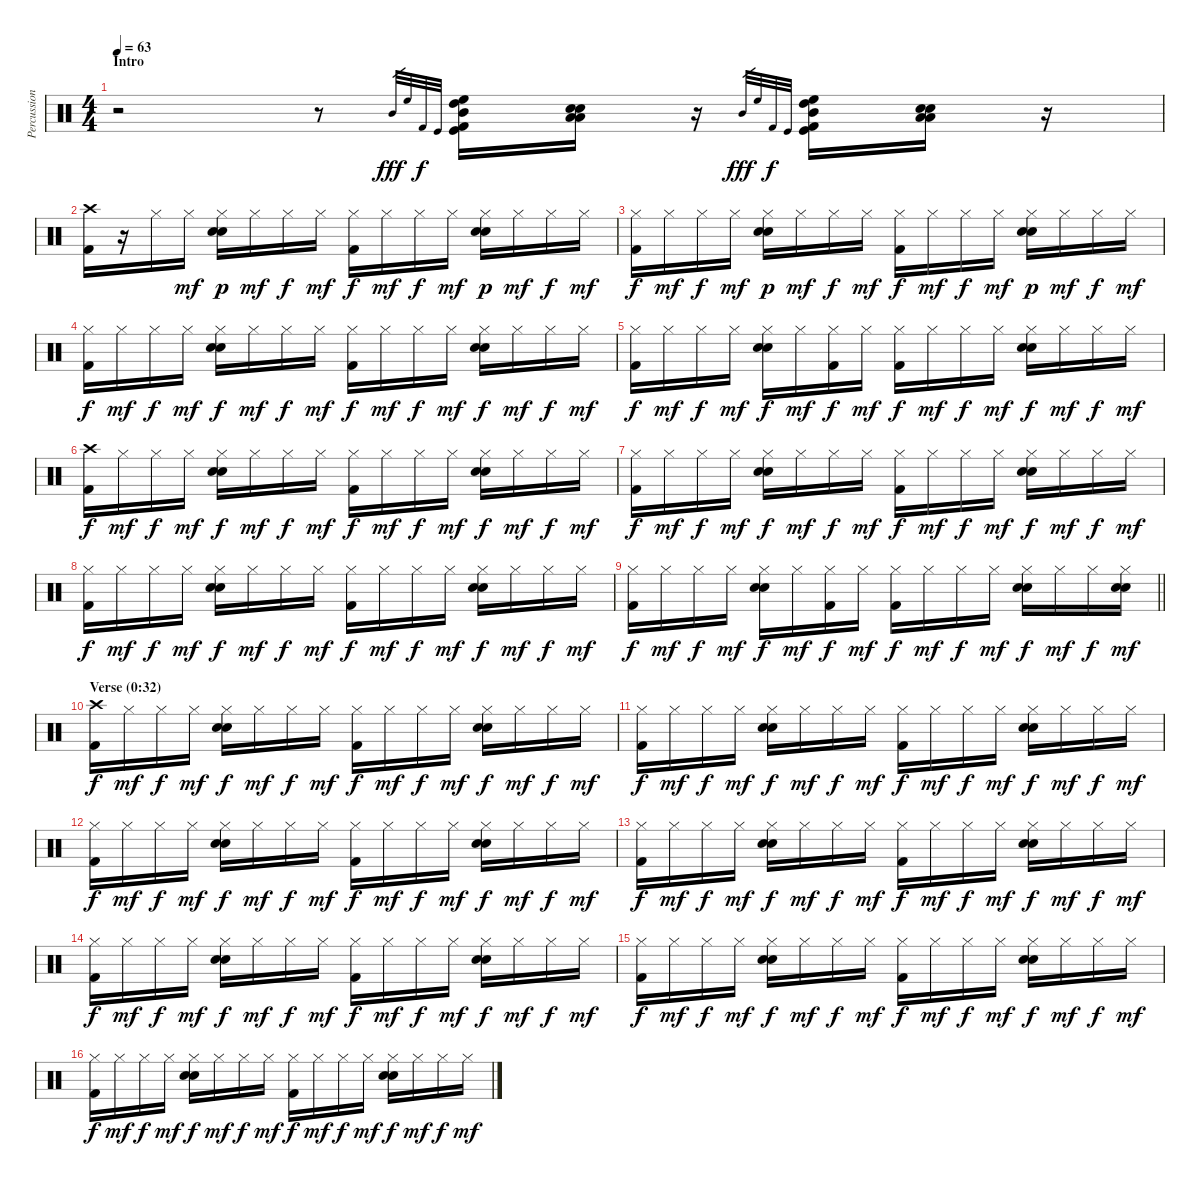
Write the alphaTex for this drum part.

\track ("Percussion" "Percussion") {instrument percussion}
\staff {score}
\articulation defaults
\ts (4 4)
\section ("" "Intro")
\tempo 63
\clef neutral
\ks c
r.2{dy fff} r.8 "Mid Tom (hit)".32{gr} "High Floor Tom (hit)".32{gr} "Kick (hit) 2".32{gr dy f} "Kick (hit)".32{gr} ("Mid Tom (hit)" "High Floor Tom (hit)" "High Tom (hit)" "Kick (hit) 2" "Kick (hit)").16 ("Low Floor Tom (hit)" "Low Tom (hit)" "Electric Snare (hit)" "Snare (hit) 2").16 r.16 "Mid Tom (hit)".32{gr dy fff} "High Floor Tom (hit)".32{gr} "Kick (hit) 2".32{gr dy f} "Kick (hit)".32{gr} ("Mid Tom (hit)" "High Floor Tom (hit)" "High Tom (hit)" "Kick (hit) 2" "Kick (hit)").16 ("Low Floor Tom (hit)" "Low Tom (hit)" "Electric Snare (hit)" "Snare (hit) 2").16 r.16 |
("Crash high (hit)" "Kick (hit) 2").16 r.16 "Hi-Hat (closed)".16 "Hi-Hat (closed)".16{dy mf} ("Hi-Hat (closed)" "Snare (hit) 2" "Electric Snare (hit)").16{dy p} "Hi-Hat (closed)".16{dy mf} "Hi-Hat (closed)".16{dy f} "Hi-Hat (closed)".16{dy mf} ("Hi-Hat (closed)" "Kick (hit) 2").16{dy f} "Hi-Hat (closed)".16{dy mf} "Hi-Hat (closed)".16{dy f} "Hi-Hat (closed)".16{dy mf} ("Hi-Hat (closed)" "Snare (hit) 2" "Electric Snare (hit)").16{dy p} "Hi-Hat (closed)".16{dy mf} "Hi-Hat (closed)".16{dy f} "Hi-Hat (closed)".16{dy mf} |
("Hi-Hat (closed)" "Kick (hit) 2").16{dy f} "Hi-Hat (closed)".16{dy mf} "Hi-Hat (closed)".16{dy f} "Hi-Hat (closed)".16{dy mf} ("Hi-Hat (closed)" "Snare (hit) 2" "Electric Snare (hit)").16{dy p} "Hi-Hat (closed)".16{dy mf} "Hi-Hat (closed)".16{dy f} "Hi-Hat (closed)".16{dy mf} ("Hi-Hat (closed)" "Kick (hit) 2").16{dy f} "Hi-Hat (closed)".16{dy mf} "Hi-Hat (closed)".16{dy f} "Hi-Hat (closed)".16{dy mf} ("Hi-Hat (closed)" "Snare (hit) 2" "Electric Snare (hit)").16{dy p} "Hi-Hat (closed)".16{dy mf} "Hi-Hat (closed)".16{dy f} "Hi-Hat (closed)".16{dy mf} |
("Hi-Hat (closed)" "Kick (hit) 2").16{dy f} "Hi-Hat (closed)".16{dy mf} "Hi-Hat (closed)".16{dy f} "Hi-Hat (closed)".16{dy mf} ("Hi-Hat (closed)" "Snare (hit) 2" "Electric Snare (hit)").16{dy f} "Hi-Hat (closed)".16{dy mf} "Hi-Hat (closed)".16{dy f} "Hi-Hat (closed)".16{dy mf} ("Hi-Hat (closed)" "Kick (hit) 2").16{dy f} "Hi-Hat (closed)".16{dy mf} "Hi-Hat (closed)".16{dy f} "Hi-Hat (closed)".16{dy mf} ("Hi-Hat (closed)" "Snare (hit) 2" "Electric Snare (hit)").16{dy f} "Hi-Hat (closed)".16{dy mf} "Hi-Hat (closed)".16{dy f} "Hi-Hat (closed)".16{dy mf} |
("Hi-Hat (closed)" "Kick (hit) 2").16{dy f} "Hi-Hat (closed)".16{dy mf} "Hi-Hat (closed)".16{dy f} "Hi-Hat (closed)".16{dy mf} ("Hi-Hat (closed)" "Snare (hit) 2" "Electric Snare (hit)").16{dy f} "Hi-Hat (closed)".16{dy mf} ("Hi-Hat (closed)" "Kick (hit) 2").16{dy f} "Hi-Hat (closed)".16{dy mf} ("Hi-Hat (closed)" "Kick (hit) 2").16{dy f} "Hi-Hat (closed)".16{dy mf} "Hi-Hat (closed)".16{dy f} "Hi-Hat (closed)".16{dy mf} ("Hi-Hat (closed)" "Snare (hit) 2" "Electric Snare (hit)").16{dy f} "Hi-Hat (closed)".16{dy mf} "Hi-Hat (closed)".16{dy f} "Hi-Hat (closed)".16{dy mf} |
("Crash high (hit)" "Kick (hit) 2").16{dy f} "Hi-Hat (closed)".16{dy mf} "Hi-Hat (closed)".16{dy f} "Hi-Hat (closed)".16{dy mf} ("Hi-Hat (closed)" "Snare (hit) 2" "Electric Snare (hit)").16{dy f} "Hi-Hat (closed)".16{dy mf} "Hi-Hat (closed)".16{dy f} "Hi-Hat (closed)".16{dy mf} ("Hi-Hat (closed)" "Kick (hit) 2").16{dy f} "Hi-Hat (closed)".16{dy mf} "Hi-Hat (closed)".16{dy f} "Hi-Hat (closed)".16{dy mf} ("Hi-Hat (closed)" "Snare (hit) 2" "Electric Snare (hit)").16{dy f} "Hi-Hat (closed)".16{dy mf} "Hi-Hat (closed)".16{dy f} "Hi-Hat (closed)".16{dy mf} |
("Hi-Hat (closed)" "Kick (hit) 2").16{dy f} "Hi-Hat (closed)".16{dy mf} "Hi-Hat (closed)".16{dy f} "Hi-Hat (closed)".16{dy mf} ("Hi-Hat (closed)" "Snare (hit) 2" "Electric Snare (hit)").16{dy f} "Hi-Hat (closed)".16{dy mf} "Hi-Hat (closed)".16{dy f} "Hi-Hat (closed)".16{dy mf} ("Hi-Hat (closed)" "Kick (hit) 2").16{dy f} "Hi-Hat (closed)".16{dy mf} "Hi-Hat (closed)".16{dy f} "Hi-Hat (closed)".16{dy mf} ("Hi-Hat (closed)" "Snare (hit) 2" "Electric Snare (hit)").16{dy f} "Hi-Hat (closed)".16{dy mf} "Hi-Hat (closed)".16{dy f} "Hi-Hat (closed)".16{dy mf} |
("Hi-Hat (closed)" "Kick (hit) 2").16{dy f} "Hi-Hat (closed)".16{dy mf} "Hi-Hat (closed)".16{dy f} "Hi-Hat (closed)".16{dy mf} ("Hi-Hat (closed)" "Snare (hit) 2" "Electric Snare (hit)").16{dy f} "Hi-Hat (closed)".16{dy mf} "Hi-Hat (closed)".16{dy f} "Hi-Hat (closed)".16{dy mf} ("Hi-Hat (closed)" "Kick (hit) 2").16{dy f} "Hi-Hat (closed)".16{dy mf} "Hi-Hat (closed)".16{dy f} "Hi-Hat (closed)".16{dy mf} ("Hi-Hat (closed)" "Snare (hit) 2" "Electric Snare (hit)").16{dy f} "Hi-Hat (closed)".16{dy mf} "Hi-Hat (closed)".16{dy f} "Hi-Hat (closed)".16{dy mf} |
\barLineRight lightlight
("Hi-Hat (closed)" "Kick (hit) 2").16{dy f} "Hi-Hat (closed)".16{dy mf} "Hi-Hat (closed)".16{dy f} "Hi-Hat (closed)".16{dy mf} ("Hi-Hat (closed)" "Snare (hit) 2" "Electric Snare (hit)").16{dy f} "Hi-Hat (closed)".16{dy mf} ("Hi-Hat (closed)" "Kick (hit) 2").16{dy f} "Hi-Hat (closed)".16{dy mf} ("Hi-Hat (closed)" "Kick (hit) 2").16{dy f} "Hi-Hat (closed)".16{dy mf} "Hi-Hat (closed)".16{dy f} "Hi-Hat (closed)".16{dy mf} ("Hi-Hat (closed)" "Snare (hit) 2" "Electric Snare (hit)").16{dy f} "Hi-Hat (closed)".16{dy mf} "Hi-Hat (closed)".16{dy f} ("Hi-Hat (closed)" "Snare (hit) 2" "Electric Snare (hit)").16{dy mf} |
\section ("" "Verse (0:32)")
("Crash high (hit)" "Kick (hit) 2").16{dy f} "Hi-Hat (closed)".16{dy mf} "Hi-Hat (closed)".16{dy f} "Hi-Hat (closed)".16{dy mf} ("Hi-Hat (closed)" "Snare (hit) 2" "Electric Snare (hit)").16{dy f} "Hi-Hat (closed)".16{dy mf} "Hi-Hat (closed)".16{dy f} "Hi-Hat (closed)".16{dy mf} ("Hi-Hat (closed)" "Kick (hit) 2").16{dy f} "Hi-Hat (closed)".16{dy mf} "Hi-Hat (closed)".16{dy f} "Hi-Hat (closed)".16{dy mf} ("Hi-Hat (closed)" "Snare (hit) 2" "Electric Snare (hit)").16{dy f} "Hi-Hat (closed)".16{dy mf} "Hi-Hat (closed)".16{dy f} "Hi-Hat (closed)".16{dy mf} |
("Hi-Hat (closed)" "Kick (hit) 2").16{dy f} "Hi-Hat (closed)".16{dy mf} "Hi-Hat (closed)".16{dy f} "Hi-Hat (closed)".16{dy mf} ("Hi-Hat (closed)" "Snare (hit) 2" "Electric Snare (hit)").16{dy f} "Hi-Hat (closed)".16{dy mf} "Hi-Hat (closed)".16{dy f} "Hi-Hat (closed)".16{dy mf} ("Hi-Hat (closed)" "Kick (hit) 2").16{dy f} "Hi-Hat (closed)".16{dy mf} "Hi-Hat (closed)".16{dy f} "Hi-Hat (closed)".16{dy mf} ("Hi-Hat (closed)" "Snare (hit) 2" "Electric Snare (hit)").16{dy f} "Hi-Hat (closed)".16{dy mf} "Hi-Hat (closed)".16{dy f} "Hi-Hat (closed)".16{dy mf} |
("Hi-Hat (closed)" "Kick (hit) 2").16{dy f} "Hi-Hat (closed)".16{dy mf} "Hi-Hat (closed)".16{dy f} "Hi-Hat (closed)".16{dy mf} ("Hi-Hat (closed)" "Snare (hit) 2" "Electric Snare (hit)").16{dy f} "Hi-Hat (closed)".16{dy mf} "Hi-Hat (closed)".16{dy f} "Hi-Hat (closed)".16{dy mf} ("Hi-Hat (closed)" "Kick (hit) 2").16{dy f} "Hi-Hat (closed)".16{dy mf} "Hi-Hat (closed)".16{dy f} "Hi-Hat (closed)".16{dy mf} ("Hi-Hat (closed)" "Snare (hit) 2" "Electric Snare (hit)").16{dy f} "Hi-Hat (closed)".16{dy mf} "Hi-Hat (closed)".16{dy f} "Hi-Hat (closed)".16{dy mf} |
("Hi-Hat (closed)" "Kick (hit) 2").16{dy f} "Hi-Hat (closed)".16{dy mf} "Hi-Hat (closed)".16{dy f} "Hi-Hat (closed)".16{dy mf} ("Hi-Hat (closed)" "Snare (hit) 2" "Electric Snare (hit)").16{dy f} "Hi-Hat (closed)".16{dy mf} "Hi-Hat (closed)".16{dy f} "Hi-Hat (closed)".16{dy mf} ("Hi-Hat (closed)" "Kick (hit) 2").16{dy f} "Hi-Hat (closed)".16{dy mf} "Hi-Hat (closed)".16{dy f} "Hi-Hat (closed)".16{dy mf} ("Hi-Hat (closed)" "Snare (hit) 2" "Electric Snare (hit)").16{dy f} "Hi-Hat (closed)".16{dy mf} "Hi-Hat (closed)".16{dy f} "Hi-Hat (closed)".16{dy mf} |
("Hi-Hat (closed)" "Kick (hit) 2").16{dy f} "Hi-Hat (closed)".16{dy mf} "Hi-Hat (closed)".16{dy f} "Hi-Hat (closed)".16{dy mf} ("Hi-Hat (closed)" "Snare (hit) 2" "Electric Snare (hit)").16{dy f} "Hi-Hat (closed)".16{dy mf} "Hi-Hat (closed)".16{dy f} "Hi-Hat (closed)".16{dy mf} ("Hi-Hat (closed)" "Kick (hit) 2").16{dy f} "Hi-Hat (closed)".16{dy mf} "Hi-Hat (closed)".16{dy f} "Hi-Hat (closed)".16{dy mf} ("Hi-Hat (closed)" "Snare (hit) 2" "Electric Snare (hit)").16{dy f} "Hi-Hat (closed)".16{dy mf} "Hi-Hat (closed)".16{dy f} "Hi-Hat (closed)".16{dy mf} |
("Hi-Hat (closed)" "Kick (hit) 2").16{dy f} "Hi-Hat (closed)".16{dy mf} "Hi-Hat (closed)".16{dy f} "Hi-Hat (closed)".16{dy mf} ("Hi-Hat (closed)" "Snare (hit) 2" "Electric Snare (hit)").16{dy f} "Hi-Hat (closed)".16{dy mf} "Hi-Hat (closed)".16{dy f} "Hi-Hat (closed)".16{dy mf} ("Hi-Hat (closed)" "Kick (hit) 2").16{dy f} "Hi-Hat (closed)".16{dy mf} "Hi-Hat (closed)".16{dy f} "Hi-Hat (closed)".16{dy mf} ("Hi-Hat (closed)" "Snare (hit) 2" "Electric Snare (hit)").16{dy f} "Hi-Hat (closed)".16{dy mf} "Hi-Hat (closed)".16{dy f} "Hi-Hat (closed)".16{dy mf} |
("Hi-Hat (closed)" "Kick (hit) 2").16{dy f} "Hi-Hat (closed)".16{dy mf} "Hi-Hat (closed)".16{dy f} "Hi-Hat (closed)".16{dy mf} ("Hi-Hat (closed)" "Snare (hit) 2" "Electric Snare (hit)").16{dy f} "Hi-Hat (closed)".16{dy mf} "Hi-Hat (closed)".16{dy f} "Hi-Hat (closed)".16{dy mf} ("Hi-Hat (closed)" "Kick (hit) 2").16{dy f} "Hi-Hat (closed)".16{dy mf} "Hi-Hat (closed)".16{dy f} "Hi-Hat (closed)".16{dy mf} ("Hi-Hat (closed)" "Snare (hit) 2" "Electric Snare (hit)").16{dy f} "Hi-Hat (closed)".16{dy mf} "Hi-Hat (closed)".16{dy f} "Hi-Hat (closed)".16{dy mf}
